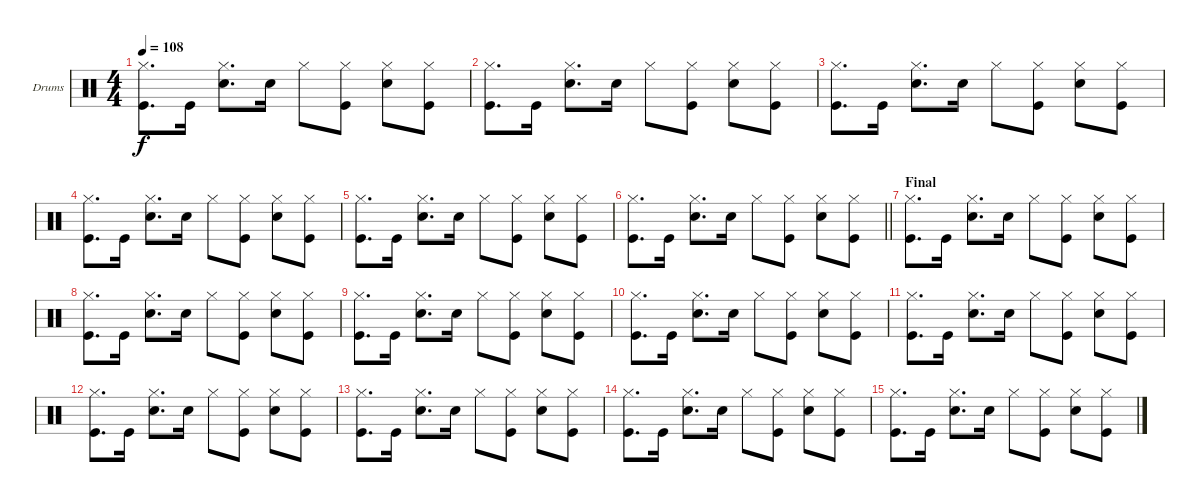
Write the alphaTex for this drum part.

\bracketExtendMode groupsimilarinstruments
\firstSystemTrackNameOrientation horizontal
\otherSystemsTrackNameOrientation horizontal
\track ("Drumkit" "Drums") {instrument percussion}
\staff {score}
\articulation defaults
\ts (4 4)
\tempo 108
\clef neutral
\ks c
("Hi-Hat (closed)" "Kick (hit)").8{d dy f} "Kick (hit)".16 ("Hi-Hat (closed)" "Snare (hit) 2").8{d} "Snare (hit) 2".16 "Hi-Hat (closed)".8 ("Hi-Hat (closed)" "Kick (hit)").8 ("Hi-Hat (closed)" "Snare (hit) 2").8 ("Hi-Hat (closed)" "Kick (hit)").8 |
("Hi-Hat (closed)" "Kick (hit)").8{d} "Kick (hit)".16 ("Hi-Hat (closed)" "Snare (hit) 2").8{d} "Snare (hit) 2".16 "Hi-Hat (closed)".8 ("Hi-Hat (closed)" "Kick (hit)").8 ("Hi-Hat (closed)" "Snare (hit) 2").8 ("Hi-Hat (closed)" "Kick (hit)").8 |
("Hi-Hat (closed)" "Kick (hit)").8{d} "Kick (hit)".16 ("Hi-Hat (closed)" "Snare (hit) 2").8{d} "Snare (hit) 2".16 "Hi-Hat (closed)".8 ("Hi-Hat (closed)" "Kick (hit)").8 ("Hi-Hat (closed)" "Snare (hit) 2").8 ("Hi-Hat (closed)" "Kick (hit)").8 |
("Hi-Hat (closed)" "Kick (hit)").8{d} "Kick (hit)".16 ("Hi-Hat (closed)" "Snare (hit) 2").8{d} "Snare (hit) 2".16 "Hi-Hat (closed)".8 ("Hi-Hat (closed)" "Kick (hit)").8 ("Hi-Hat (closed)" "Snare (hit) 2").8 ("Hi-Hat (closed)" "Kick (hit)").8 |
("Hi-Hat (closed)" "Kick (hit)").8{d} "Kick (hit)".16 ("Hi-Hat (closed)" "Snare (hit) 2").8{d} "Snare (hit) 2".16 "Hi-Hat (closed)".8 ("Hi-Hat (closed)" "Kick (hit)").8 ("Hi-Hat (closed)" "Snare (hit) 2").8 ("Hi-Hat (closed)" "Kick (hit)").8 |
\barLineRight lightlight
("Hi-Hat (closed)" "Kick (hit)").8{d} "Kick (hit)".16 ("Hi-Hat (closed)" "Snare (hit) 2").8{d} "Snare (hit) 2".16 "Hi-Hat (closed)".8 ("Hi-Hat (closed)" "Kick (hit)").8 ("Hi-Hat (closed)" "Snare (hit) 2").8 ("Hi-Hat (closed)" "Kick (hit)").8 |
\section ("" "Final")
("Hi-Hat (closed)" "Kick (hit)").8{d} "Kick (hit)".16 ("Hi-Hat (closed)" "Snare (hit) 2").8{d} "Snare (hit) 2".16 "Hi-Hat (closed)".8 ("Hi-Hat (closed)" "Kick (hit)").8 ("Hi-Hat (closed)" "Snare (hit) 2").8 ("Hi-Hat (closed)" "Kick (hit)").8 |
("Hi-Hat (closed)" "Kick (hit)").8{d} "Kick (hit)".16 ("Hi-Hat (closed)" "Snare (hit) 2").8{d} "Snare (hit) 2".16 "Hi-Hat (closed)".8 ("Hi-Hat (closed)" "Kick (hit)").8 ("Hi-Hat (closed)" "Snare (hit) 2").8 ("Hi-Hat (closed)" "Kick (hit)").8 |
("Hi-Hat (closed)" "Kick (hit)").8{d} "Kick (hit)".16 ("Hi-Hat (closed)" "Snare (hit) 2").8{d} "Snare (hit) 2".16 "Hi-Hat (closed)".8 ("Hi-Hat (closed)" "Kick (hit)").8 ("Hi-Hat (closed)" "Snare (hit) 2").8 ("Hi-Hat (closed)" "Kick (hit)").8 |
("Hi-Hat (closed)" "Kick (hit)").8{d} "Kick (hit)".16 ("Hi-Hat (closed)" "Snare (hit) 2").8{d} "Snare (hit) 2".16 "Hi-Hat (closed)".8 ("Hi-Hat (closed)" "Kick (hit)").8 ("Hi-Hat (closed)" "Snare (hit) 2").8 ("Hi-Hat (closed)" "Kick (hit)").8 |
("Hi-Hat (closed)" "Kick (hit)").8{d} "Kick (hit)".16 ("Hi-Hat (closed)" "Snare (hit) 2").8{d} "Snare (hit) 2".16 "Hi-Hat (closed)".8 ("Hi-Hat (closed)" "Kick (hit)").8 ("Hi-Hat (closed)" "Snare (hit) 2").8 ("Hi-Hat (closed)" "Kick (hit)").8 |
("Hi-Hat (closed)" "Kick (hit)").8{d} "Kick (hit)".16 ("Hi-Hat (closed)" "Snare (hit) 2").8{d} "Snare (hit) 2".16 "Hi-Hat (closed)".8 ("Hi-Hat (closed)" "Kick (hit)").8 ("Hi-Hat (closed)" "Snare (hit) 2").8 ("Hi-Hat (closed)" "Kick (hit)").8 |
("Hi-Hat (closed)" "Kick (hit)").8{d} "Kick (hit)".16 ("Hi-Hat (closed)" "Snare (hit) 2").8{d} "Snare (hit) 2".16 "Hi-Hat (closed)".8 ("Hi-Hat (closed)" "Kick (hit)").8 ("Hi-Hat (closed)" "Snare (hit) 2").8 ("Hi-Hat (closed)" "Kick (hit)").8 |
("Hi-Hat (closed)" "Kick (hit)").8{d} "Kick (hit)".16 ("Hi-Hat (closed)" "Snare (hit) 2").8{d} "Snare (hit) 2".16 "Hi-Hat (closed)".8 ("Hi-Hat (closed)" "Kick (hit)").8 ("Hi-Hat (closed)" "Snare (hit) 2").8 ("Hi-Hat (closed)" "Kick (hit)").8 |
("Hi-Hat (closed)" "Kick (hit)").8{d} "Kick (hit)".16 ("Hi-Hat (closed)" "Snare (hit) 2").8{d} "Snare (hit) 2".16 "Hi-Hat (closed)".8 ("Hi-Hat (closed)" "Kick (hit)").8 ("Hi-Hat (closed)" "Snare (hit) 2").8 ("Hi-Hat (closed)" "Kick (hit)").8
